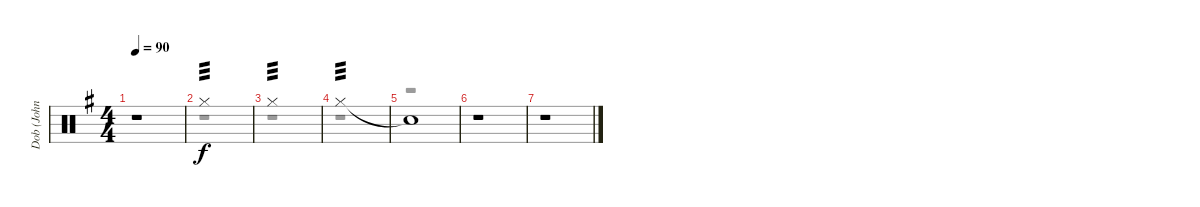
\track ("Dob (John Macaluso)" "Dob (John ") {instrument percussion}
\staff {score}
\articulation defaults
\voice
\ts (4 4)
\tempo 90
\clef neutral
\ks g
r.1{dy f volume 5} |
"Hi-Hat (closed)".1{tp 3 volume 11} |
"Hi-Hat (closed)".1{tp 3 volume 12} |
"Hi-Hat (closed)".1{tp 3 volume 13} |
"Snare (hit)"{t}.1 |
r.1 |
r.1 |
\voice
\clef neutral
\ottava regular
\simile none
\ks g
r.1{dy f} |
r.1 |
r.1 |
r.1 |
r.1 |
r.1 |
r.1 |
